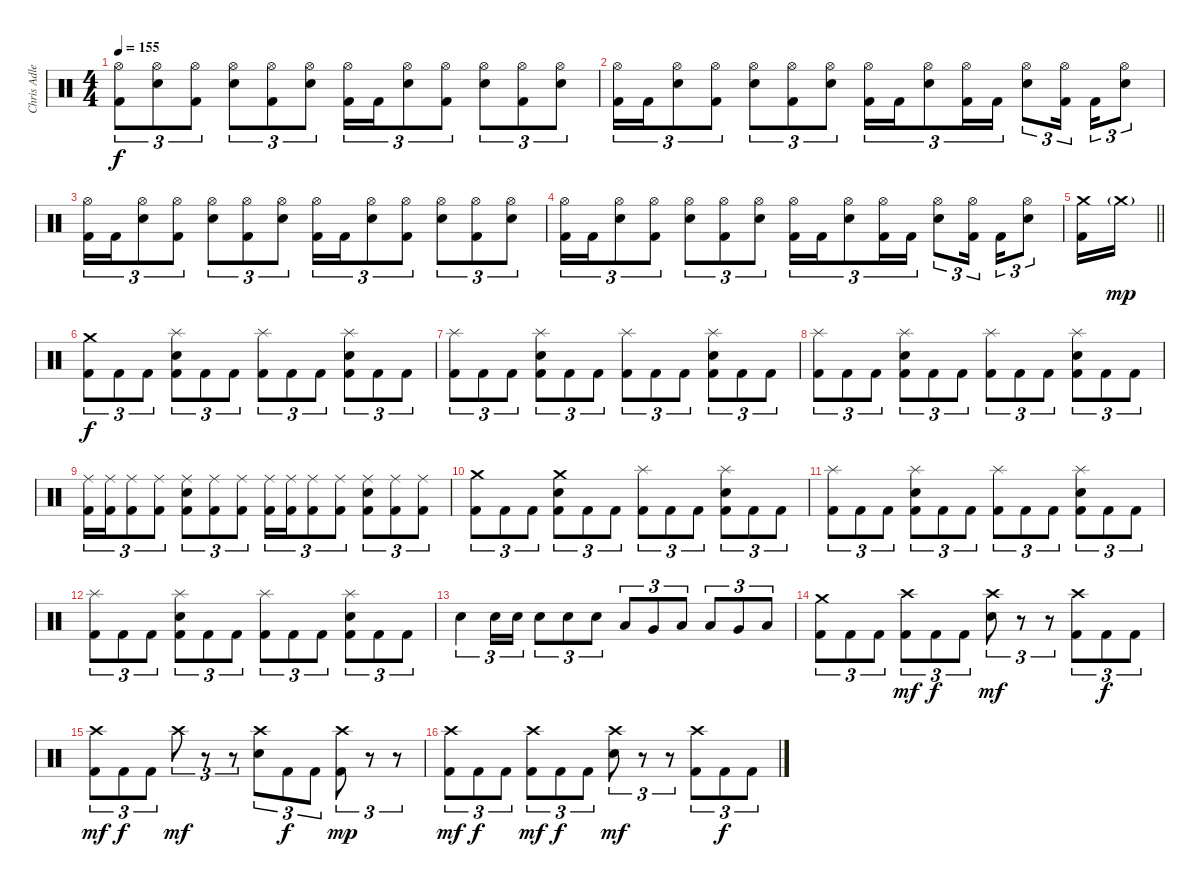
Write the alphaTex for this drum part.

\track ("Chris Adler" "Chris Adle") {instrument percussion}
\staff {score}
\articulation defaults
\ts (4 4)
\tempo 155
\clef neutral
\ks c
("Hi-Hat (open)" "Kick (hit) 2").8{tu (3 2) dy f} ("Hi-Hat (open)" "Snare (hit) 2").8{tu (3 2)} ("Hi-Hat (open)" "Kick (hit) 2").8{tu (3 2)} ("Hi-Hat (open)" "Snare (hit) 2").8{tu (3 2)} ("Hi-Hat (open)" "Kick (hit) 2").8{tu (3 2)} ("Hi-Hat (open)" "Snare (hit) 2").8{tu (3 2)} ("Hi-Hat (open)" "Kick (hit) 2").16{tu (3 2)} "Kick (hit) 2".16{tu (3 2)} ("Hi-Hat (open)" "Snare (hit) 2").8{tu (3 2)} ("Hi-Hat (open)" "Kick (hit) 2").8{tu (3 2)} ("Hi-Hat (open)" "Snare (hit) 2").8{tu (3 2)} ("Hi-Hat (open)" "Kick (hit) 2").8{tu (3 2)} ("Hi-Hat (open)" "Snare (hit) 2").8{tu (3 2)} |
("Hi-Hat (open)" "Kick (hit) 2").16{tu (3 2)} "Kick (hit) 2".16{tu (3 2)} ("Hi-Hat (open)" "Snare (hit) 2").8{tu (3 2)} ("Hi-Hat (open)" "Kick (hit) 2").8{tu (3 2)} ("Hi-Hat (open)" "Snare (hit) 2").8{tu (3 2)} ("Hi-Hat (open)" "Kick (hit) 2").8{tu (3 2)} ("Hi-Hat (open)" "Snare (hit) 2").8{tu (3 2)} ("Hi-Hat (open)" "Kick (hit) 2").16{tu (3 2)} "Kick (hit) 2".16{tu (3 2)} ("Hi-Hat (open)" "Snare (hit) 2").8{tu (3 2)} ("Hi-Hat (open)" "Kick (hit) 2").16{tu (3 2)} "Kick (hit) 2".16{tu (3 2)} ("Hi-Hat (open)" "Snare (hit) 2").8{tu (3 2)} ("Hi-Hat (open)" "Kick (hit) 2").16{tu (3 2) beam splitsecondary} "Kick (hit) 2".16{tu (3 2)} ("Hi-Hat (open)" "Snare (hit) 2").8{tu (3 2)} |
("Hi-Hat (open)" "Kick (hit) 2").16{tu (3 2)} "Kick (hit) 2".16{tu (3 2)} ("Hi-Hat (open)" "Snare (hit) 2").8{tu (3 2)} ("Hi-Hat (open)" "Kick (hit) 2").8{tu (3 2)} ("Hi-Hat (open)" "Snare (hit) 2").8{tu (3 2)} ("Hi-Hat (open)" "Kick (hit) 2").8{tu (3 2)} ("Hi-Hat (open)" "Snare (hit) 2").8{tu (3 2)} ("Hi-Hat (open)" "Kick (hit) 2").16{tu (3 2)} "Kick (hit) 2".16{tu (3 2)} ("Hi-Hat (open)" "Snare (hit) 2").8{tu (3 2)} ("Hi-Hat (open)" "Kick (hit) 2").8{tu (3 2)} ("Hi-Hat (open)" "Snare (hit) 2").8{tu (3 2)} ("Hi-Hat (open)" "Kick (hit) 2").8{tu (3 2)} ("Hi-Hat (open)" "Snare (hit) 2").8{tu (3 2)} |
("Hi-Hat (open)" "Kick (hit) 2").16{tu (3 2)} "Kick (hit) 2".16{tu (3 2)} ("Hi-Hat (open)" "Snare (hit) 2").8{tu (3 2)} ("Hi-Hat (open)" "Kick (hit) 2").8{tu (3 2)} ("Hi-Hat (open)" "Snare (hit) 2").8{tu (3 2)} ("Hi-Hat (open)" "Kick (hit) 2").8{tu (3 2)} ("Hi-Hat (open)" "Snare (hit) 2").8{tu (3 2)} ("Hi-Hat (open)" "Kick (hit) 2").16{tu (3 2)} "Kick (hit) 2".16{tu (3 2)} ("Hi-Hat (open)" "Snare (hit) 2").8{tu (3 2)} ("Hi-Hat (open)" "Kick (hit) 2").16{tu (3 2)} "Kick (hit) 2".16{tu (3 2)} ("Hi-Hat (open)" "Snare (hit) 2").8{tu (3 2)} ("Hi-Hat (open)" "Kick (hit) 2").16{tu (3 2) beam splitsecondary} "Kick (hit) 2".16{tu (3 2)} ("Hi-Hat (open)" "Snare (hit) 2").8{tu (3 2)} |
\barLineRight lightlight
("Crash medium (hit)" "Kick (hit) 2").16 "Crash medium (hit)"{g}.16{dy mp} |
("Crash medium (hit)" "Kick (hit) 2").8{tu (3 2) dy f} "Kick (hit) 2".8{tu (3 2)} "Kick (hit) 2".8{tu (3 2)} ("Splash (hit)" "Snare (hit) 2" "Kick (hit) 2").8{tu (3 2)} "Kick (hit) 2".8{tu (3 2)} "Kick (hit) 2".8{tu (3 2)} ("Splash (hit)" "Kick (hit) 2").8{tu (3 2)} "Kick (hit) 2".8{tu (3 2)} "Kick (hit) 2".8{tu (3 2)} ("Splash (hit)" "Snare (hit) 2" "Kick (hit) 2").8{tu (3 2)} "Kick (hit) 2".8{tu (3 2)} "Kick (hit) 2".8{tu (3 2)} |
("Splash (hit)" "Kick (hit) 2").8{tu (3 2)} "Kick (hit) 2".8{tu (3 2)} "Kick (hit) 2".8{tu (3 2)} ("Splash (hit)" "Snare (hit) 2" "Kick (hit) 2").8{tu (3 2)} "Kick (hit) 2".8{tu (3 2)} "Kick (hit) 2".8{tu (3 2)} ("Splash (hit)" "Kick (hit) 2").8{tu (3 2)} "Kick (hit) 2".8{tu (3 2)} "Kick (hit) 2".8{tu (3 2)} ("Splash (hit)" "Snare (hit) 2" "Kick (hit) 2").8{tu (3 2)} "Kick (hit) 2".8{tu (3 2)} "Kick (hit) 2".8{tu (3 2)} |
("Splash (hit)" "Kick (hit) 2").8{tu (3 2)} "Kick (hit) 2".8{tu (3 2)} "Kick (hit) 2".8{tu (3 2)} ("Splash (hit)" "Snare (hit) 2" "Kick (hit) 2").8{tu (3 2)} "Kick (hit) 2".8{tu (3 2)} "Kick (hit) 2".8{tu (3 2)} ("Splash (hit)" "Kick (hit) 2").8{tu (3 2)} "Kick (hit) 2".8{tu (3 2)} "Kick (hit) 2".8{tu (3 2)} ("Splash (hit)" "Snare (hit) 2" "Kick (hit) 2").8{tu (3 2)} "Kick (hit) 2".8{tu (3 2)} "Kick (hit) 2".8{tu (3 2)} |
("Ride (middle)" "Kick (hit) 2").16{tu (3 2)} ("Ride (middle)" "Kick (hit) 2").16{tu (3 2)} ("Ride (middle)" "Kick (hit) 2").8{tu (3 2)} ("Ride (middle)" "Kick (hit) 2").8{tu (3 2)} ("Ride (middle)" "Snare (hit) 2" "Kick (hit) 2").8{tu (3 2)} ("Ride (middle)" "Kick (hit) 2").8{tu (3 2)} ("Ride (middle)" "Kick (hit) 2").8{tu (3 2)} ("Ride (middle)" "Kick (hit) 2").16{tu (3 2)} ("Ride (middle)" "Kick (hit) 2").16{tu (3 2)} ("Ride (middle)" "Kick (hit) 2").8{tu (3 2)} ("Ride (middle)" "Kick (hit) 2").8{tu (3 2)} ("Ride (middle)" "Snare (hit) 2" "Kick (hit) 2").8{tu (3 2)} ("Ride (middle)" "Kick (hit) 2").8{tu (3 2)} ("Ride (middle)" "Kick (hit) 2").8{tu (3 2)} |
("Crash medium (hit)" "Kick (hit) 2").8{tu (3 2)} "Kick (hit) 2".8{tu (3 2)} "Kick (hit) 2".8{tu (3 2)} ("Crash medium (hit)" "Snare (hit) 2" "Kick (hit) 2").8{tu (3 2)} "Kick (hit) 2".8{tu (3 2)} "Kick (hit) 2".8{tu (3 2)} ("Splash (hit)" "Kick (hit) 2").8{tu (3 2)} "Kick (hit) 2".8{tu (3 2)} "Kick (hit) 2".8{tu (3 2)} ("Splash (hit)" "Snare (hit) 2" "Kick (hit) 2").8{tu (3 2)} "Kick (hit) 2".8{tu (3 2)} "Kick (hit) 2".8{tu (3 2)} |
("Splash (hit)" "Kick (hit) 2").8{tu (3 2)} "Kick (hit) 2".8{tu (3 2)} "Kick (hit) 2".8{tu (3 2)} ("Splash (hit)" "Snare (hit) 2" "Kick (hit) 2").8{tu (3 2)} "Kick (hit) 2".8{tu (3 2)} "Kick (hit) 2".8{tu (3 2)} ("Splash (hit)" "Kick (hit) 2").8{tu (3 2)} "Kick (hit) 2".8{tu (3 2)} "Kick (hit) 2".8{tu (3 2)} ("Splash (hit)" "Snare (hit) 2" "Kick (hit) 2").8{tu (3 2)} "Kick (hit) 2".8{tu (3 2)} "Kick (hit) 2".8{tu (3 2)} |
("Splash (hit)" "Kick (hit) 2").8{tu (3 2)} "Kick (hit) 2".8{tu (3 2)} "Kick (hit) 2".8{tu (3 2)} ("Splash (hit)" "Snare (hit) 2" "Kick (hit) 2").8{tu (3 2)} "Kick (hit) 2".8{tu (3 2)} "Kick (hit) 2".8{tu (3 2)} ("Splash (hit)" "Kick (hit) 2").8{tu (3 2)} "Kick (hit) 2".8{tu (3 2)} "Kick (hit) 2".8{tu (3 2)} ("Splash (hit)" "Snare (hit) 2" "Kick (hit) 2").8{tu (3 2)} "Kick (hit) 2".8{tu (3 2)} "Kick (hit) 2".8{tu (3 2)} |
"Electric Snare (hit)".4{tu (3 2)} "Electric Snare (hit)".16{tu (3 2)} "Electric Snare (hit)".16{tu (3 2)} "Electric Snare (hit)".8{tu (3 2)} "Electric Snare (hit)".8{tu (3 2)} "Electric Snare (hit)".8{tu (3 2)} "Low Tom (hit)".8{tu (3 2)} "Very Low Tom (hit)".8{tu (3 2)} "Low Floor Tom (hit)".8{tu (3 2)} "Low Tom (hit)".8{tu (3 2)} "Very Low Tom (hit)".8{tu (3 2)} "Low Floor Tom (hit)".8{tu (3 2)} |
("Crash medium (hit)" "Kick (hit) 2").8{tu (3 2)} "Kick (hit) 2".8{tu (3 2)} "Kick (hit) 2".8{tu (3 2)} ("Crash high (hit)" "Kick (hit) 2").8{tu (3 2) dy mf} "Kick (hit) 2".8{tu (3 2) dy f} "Kick (hit) 2".8{tu (3 2)} ("Crash high (hit)" "Snare (hit) 2").8{tu (3 2) dy mf} r.8{tu (3 2)} r.8{tu (3 2)} ("Crash high (hit)" "Kick (hit) 2").8{tu (3 2)} "Kick (hit) 2".8{tu (3 2) dy f} "Kick (hit) 2".8{tu (3 2)} |
("Crash high (hit)" "Kick (hit) 2").8{tu (3 2) dy mf} "Kick (hit) 2".8{tu (3 2) dy f} "Kick (hit) 2".8{tu (3 2)} "Crash high (hit)".8{tu (3 2) dy mf} r.8{tu (3 2)} r.8{tu (3 2)} ("Crash high (hit)" "Snare (hit) 2").8{tu (3 2)} "Kick (hit) 2".8{tu (3 2) dy f} "Kick (hit) 2".8{tu (3 2)} ("Crash high (hit)" "Kick (hit) 2").8{tu (3 2) dy mp} r.8{tu (3 2)} r.8{tu (3 2)} |
("Crash high (hit)" "Kick (hit) 2").8{tu (3 2) dy mf} "Kick (hit) 2".8{tu (3 2) dy f} "Kick (hit) 2".8{tu (3 2)} ("Crash high (hit)" "Kick (hit) 2").8{tu (3 2) dy mf} "Kick (hit) 2".8{tu (3 2) dy f} "Kick (hit) 2".8{tu (3 2)} ("Crash high (hit)" "Snare (hit) 2").8{tu (3 2) dy mf} r.8{tu (3 2)} r.8{tu (3 2)} ("Crash high (hit)" "Kick (hit) 2").8{tu (3 2)} "Kick (hit) 2".8{tu (3 2) dy f} "Kick (hit) 2".8{tu (3 2)}
